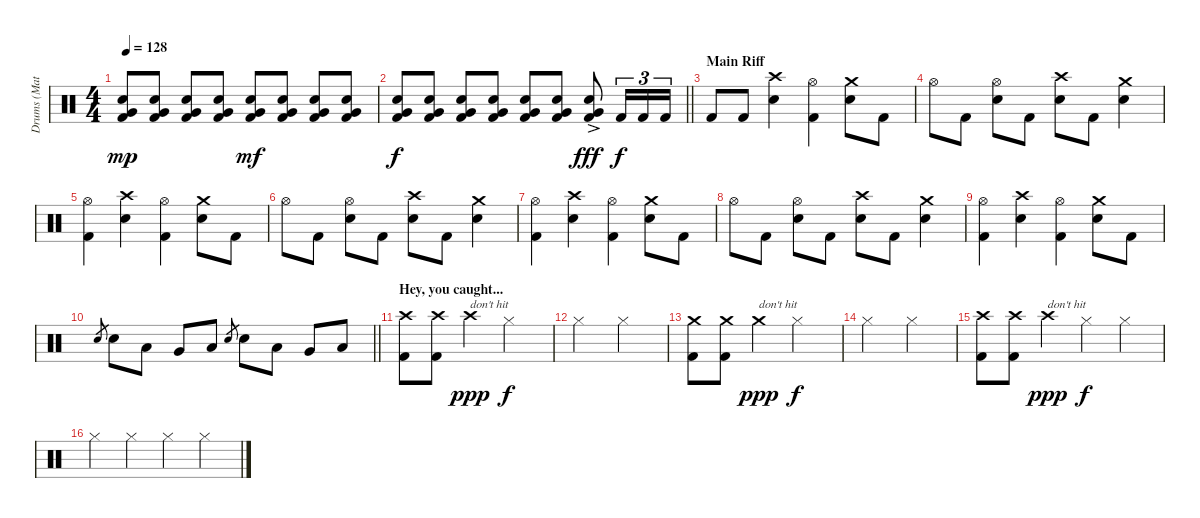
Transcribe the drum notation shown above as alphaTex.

\track ("Drums (Matt)" "Drums (Mat") {instrument percussion}
\staff {score}
\articulation defaults
\ts (4 4)
\tempo 128
\clef neutral
\ks c
("Very Low Tom (hit)" "Snare (hit) 2" "Kick (hit) 2").8{dy mp} ("Very Low Tom (hit)" "Snare (hit) 2" "Kick (hit) 2").8 ("Very Low Tom (hit)" "Snare (hit) 2" "Kick (hit) 2").8 ("Very Low Tom (hit)" "Snare (hit) 2" "Kick (hit) 2").8 ("Very Low Tom (hit)" "Snare (hit) 2" "Kick (hit) 2").8{dy mf} ("Very Low Tom (hit)" "Snare (hit) 2" "Kick (hit) 2").8 ("Very Low Tom (hit)" "Snare (hit) 2" "Kick (hit) 2").8 ("Very Low Tom (hit)" "Snare (hit) 2" "Kick (hit) 2").8 |
\barLineRight lightlight
("Very Low Tom (hit)" "Snare (hit) 2" "Kick (hit) 2").8{dy f} ("Very Low Tom (hit)" "Snare (hit) 2" "Kick (hit) 2").8 ("Very Low Tom (hit)" "Snare (hit) 2" "Kick (hit) 2").8 ("Very Low Tom (hit)" "Snare (hit) 2" "Kick (hit) 2").8 ("Very Low Tom (hit)" "Snare (hit) 2" "Kick (hit) 2").8 ("Very Low Tom (hit)" "Snare (hit) 2" "Kick (hit) 2").8 ("Very Low Tom (hit)"{ac} "Snare (hit) 2"{ac} "Kick (hit) 2").8{dy fff} "Kick (hit) 2".16{tu (3 2) dy f} "Kick (hit) 2".16{tu (3 2)} "Kick (hit) 2".16{tu (3 2)} |
\section ("" "Main Riff")
"Kick (hit) 2".8 "Kick (hit) 2".8 ("Crash high (hit)" "Snare (hit) 2").4 ("Hi-Hat (open)" "Kick (hit) 2").4 ("Crash medium (hit)" "Snare (hit) 2").8 "Kick (hit) 2".8 |
"Hi-Hat (open)".8 "Kick (hit) 2".8 ("Hi-Hat (open)" "Snare (hit) 2").8 "Kick (hit) 2".8 ("Crash high (hit)" "Snare (hit) 2").8 "Kick (hit) 2".8 ("Crash medium (hit)" "Snare (hit) 2").4 |
("Hi-Hat (open)" "Kick (hit) 2").4 ("Crash high (hit)" "Snare (hit) 2").4 ("Hi-Hat (open)" "Kick (hit) 2").4 ("Crash medium (hit)" "Snare (hit) 2").8 "Kick (hit) 2".8 |
"Hi-Hat (open)".8 "Kick (hit) 2".8 ("Hi-Hat (open)" "Snare (hit) 2").8 "Kick (hit) 2".8 ("Crash high (hit)" "Snare (hit) 2").8 "Kick (hit) 2".8 ("Crash medium (hit)" "Snare (hit) 2").4 |
("Hi-Hat (open)" "Kick (hit) 2").4 ("Crash high (hit)" "Snare (hit) 2").4 ("Hi-Hat (open)" "Kick (hit) 2").4 ("Crash medium (hit)" "Snare (hit) 2").8 "Kick (hit) 2".8 |
"Hi-Hat (open)".8 "Kick (hit) 2".8 ("Hi-Hat (open)" "Snare (hit) 2").8 "Kick (hit) 2".8 ("Crash high (hit)" "Snare (hit) 2").8 "Kick (hit) 2".8 ("Crash medium (hit)" "Snare (hit) 2").4 |
("Hi-Hat (open)" "Kick (hit) 2").4 ("Crash high (hit)" "Snare (hit) 2").4 ("Hi-Hat (open)" "Kick (hit) 2").4 ("Crash medium (hit)" "Snare (hit) 2").8 "Kick (hit) 2".8 |
\barLineRight lightlight "Snare (hit) 2".8{gr} "Snare (hit) 2".8 "Low Tom (hit)".8 "Very Low Tom (hit)".8 "Low Floor Tom (hit)".8 "Snare (hit) 2".8{gr} "Snare (hit) 2".8 "Low Tom (hit)".8 "Very Low Tom (hit)".8 "Low Floor Tom (hit)".8
|
\section ("" "Hey, you caught...")
("Crash high (hit)" "Kick (hit) 2").8 ("Crash high (hit)" "Kick (hit) 2").8 "Crash high (hit)".4{txt "don't hit" dy ppp} "Hi-Hat (closed)".2{dy f} |
"Hi-Hat (closed)".2 "Hi-Hat (closed)".2 |
("Crash medium (hit)" "Kick (hit) 2").8 ("Crash medium (hit)" "Kick (hit) 2").8 "Crash medium (hit)".4{txt "don't hit" dy ppp} "Hi-Hat (closed)".2{dy f} |
"Hi-Hat (closed)".2 "Hi-Hat (closed)".2 |
("Crash high (hit)" "Kick (hit) 2").8 ("Crash high (hit)" "Kick (hit) 2").8 "Crash high (hit)".4{txt "don't hit" dy ppp} "Hi-Hat (closed)".4{dy f} "Hi-Hat (closed)".4 |
"Hi-Hat (closed)".4 "Hi-Hat (closed)".4 "Hi-Hat (closed)".4 "Hi-Hat (closed)".4
